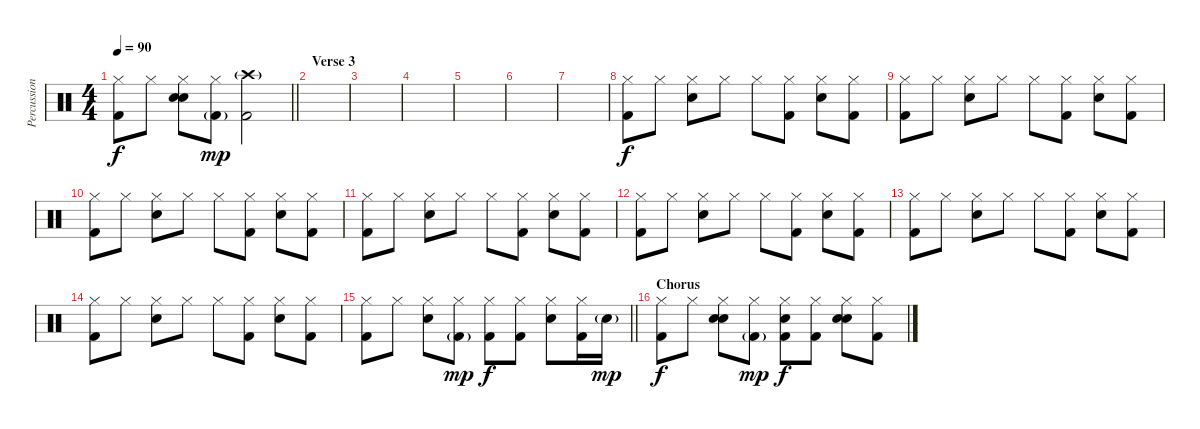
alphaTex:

\track ("Percussion" "Percussion") {instrument percussion}
\staff {score}
\articulation defaults
\ts (4 4)
\tempo 90
\clef neutral
\barLineRight lightlight
\ks c
("Hi-Hat (closed)" "Kick (hit) 2").8{dy f} "Hi-Hat (closed)".8 ("Hi-Hat (closed)" "Hand Clap (hit)" "Snare (hit) 2").8 ("Hi-Hat (closed)" "Kick (hit) 2"{g}).8{dy mp} ("Crash high (hit)"{g} "Kick (hit) 2").2 |
\section ("" "Verse 3")
|
|
|
|
|
|
("Hi-Hat (closed)" "Kick (hit) 2").8{dy f} "Hi-Hat (closed)".8 ("Hi-Hat (closed)" "Snare (hit) 2").8 "Hi-Hat (closed)".8 "Hi-Hat (closed)".8 ("Hi-Hat (closed)" "Kick (hit) 2").8 ("Hi-Hat (closed)" "Snare (hit) 2").8 ("Hi-Hat (closed)" "Kick (hit) 2").8 |
("Hi-Hat (closed)" "Kick (hit) 2").8 "Hi-Hat (closed)".8 ("Hi-Hat (closed)" "Snare (hit) 2").8 "Hi-Hat (closed)".8 "Hi-Hat (closed)".8 ("Hi-Hat (closed)" "Kick (hit) 2").8 ("Hi-Hat (closed)" "Snare (hit) 2").8 ("Hi-Hat (closed)" "Kick (hit) 2").8 |
("Hi-Hat (closed)" "Kick (hit) 2").8 "Hi-Hat (closed)".8 ("Hi-Hat (closed)" "Snare (hit) 2").8 "Hi-Hat (closed)".8 "Hi-Hat (closed)".8 ("Hi-Hat (closed)" "Kick (hit) 2").8 ("Hi-Hat (closed)" "Snare (hit) 2").8 ("Hi-Hat (closed)" "Kick (hit) 2").8 |
("Hi-Hat (closed)" "Kick (hit) 2").8 "Hi-Hat (closed)".8 ("Hi-Hat (closed)" "Snare (hit) 2").8 "Hi-Hat (closed)".8 "Hi-Hat (closed)".8 ("Hi-Hat (closed)" "Kick (hit) 2").8 ("Hi-Hat (closed)" "Snare (hit) 2").8 ("Hi-Hat (closed)" "Kick (hit) 2").8 |
("Hi-Hat (closed)" "Kick (hit) 2").8 "Hi-Hat (closed)".8 ("Hi-Hat (closed)" "Snare (hit) 2").8 "Hi-Hat (closed)".8 "Hi-Hat (closed)".8 ("Hi-Hat (closed)" "Kick (hit) 2").8 ("Hi-Hat (closed)" "Snare (hit) 2").8 ("Hi-Hat (closed)" "Kick (hit) 2").8 |
("Hi-Hat (closed)" "Kick (hit) 2").8 "Hi-Hat (closed)".8 ("Hi-Hat (closed)" "Snare (hit) 2").8 "Hi-Hat (closed)".8 "Hi-Hat (closed)".8 ("Hi-Hat (closed)" "Kick (hit) 2").8 ("Hi-Hat (closed)" "Snare (hit) 2").8 ("Hi-Hat (closed)" "Kick (hit) 2").8 |
("Hi-Hat (closed)" "Kick (hit) 2").8 "Hi-Hat (closed)".8 ("Hi-Hat (closed)" "Snare (hit) 2").8 "Hi-Hat (closed)".8 "Hi-Hat (closed)".8 ("Hi-Hat (closed)" "Kick (hit) 2").8 ("Hi-Hat (closed)" "Snare (hit) 2").8 ("Hi-Hat (closed)" "Kick (hit) 2").8 |
\barLineRight lightlight
("Hi-Hat (closed)" "Kick (hit) 2").8 "Hi-Hat (closed)".8 ("Hi-Hat (closed)" "Snare (hit) 2").8 ("Hi-Hat (closed)" "Kick (hit) 2"{g}).8{dy mp} ("Hi-Hat (closed)" "Kick (hit) 2").8{dy f} ("Hi-Hat (closed)" "Kick (hit) 2").8 ("Hi-Hat (closed)" "Snare (hit) 2").8 ("Hi-Hat (closed)" "Kick (hit) 2").16 "Snare (hit) 2"{g}.16{dy mp} |
\section ("" "Chorus")
("Hi-Hat (closed)" "Kick (hit) 2").8{dy f} "Hi-Hat (closed)".8 ("Hi-Hat (closed)" "Hand Clap (hit)" "Snare (hit) 2").8 ("Hi-Hat (closed)" "Kick (hit) 2"{g}).8{dy mp} ("Hi-Hat (closed)" "Hand Clap (hit)" "Kick (hit) 2").8{dy f} ("Hi-Hat (closed)" "Kick (hit) 2").8 ("Hi-Hat (closed)" "Hand Clap (hit)" "Snare (hit) 2").8 ("Hi-Hat (closed)" "Kick (hit) 2").8
